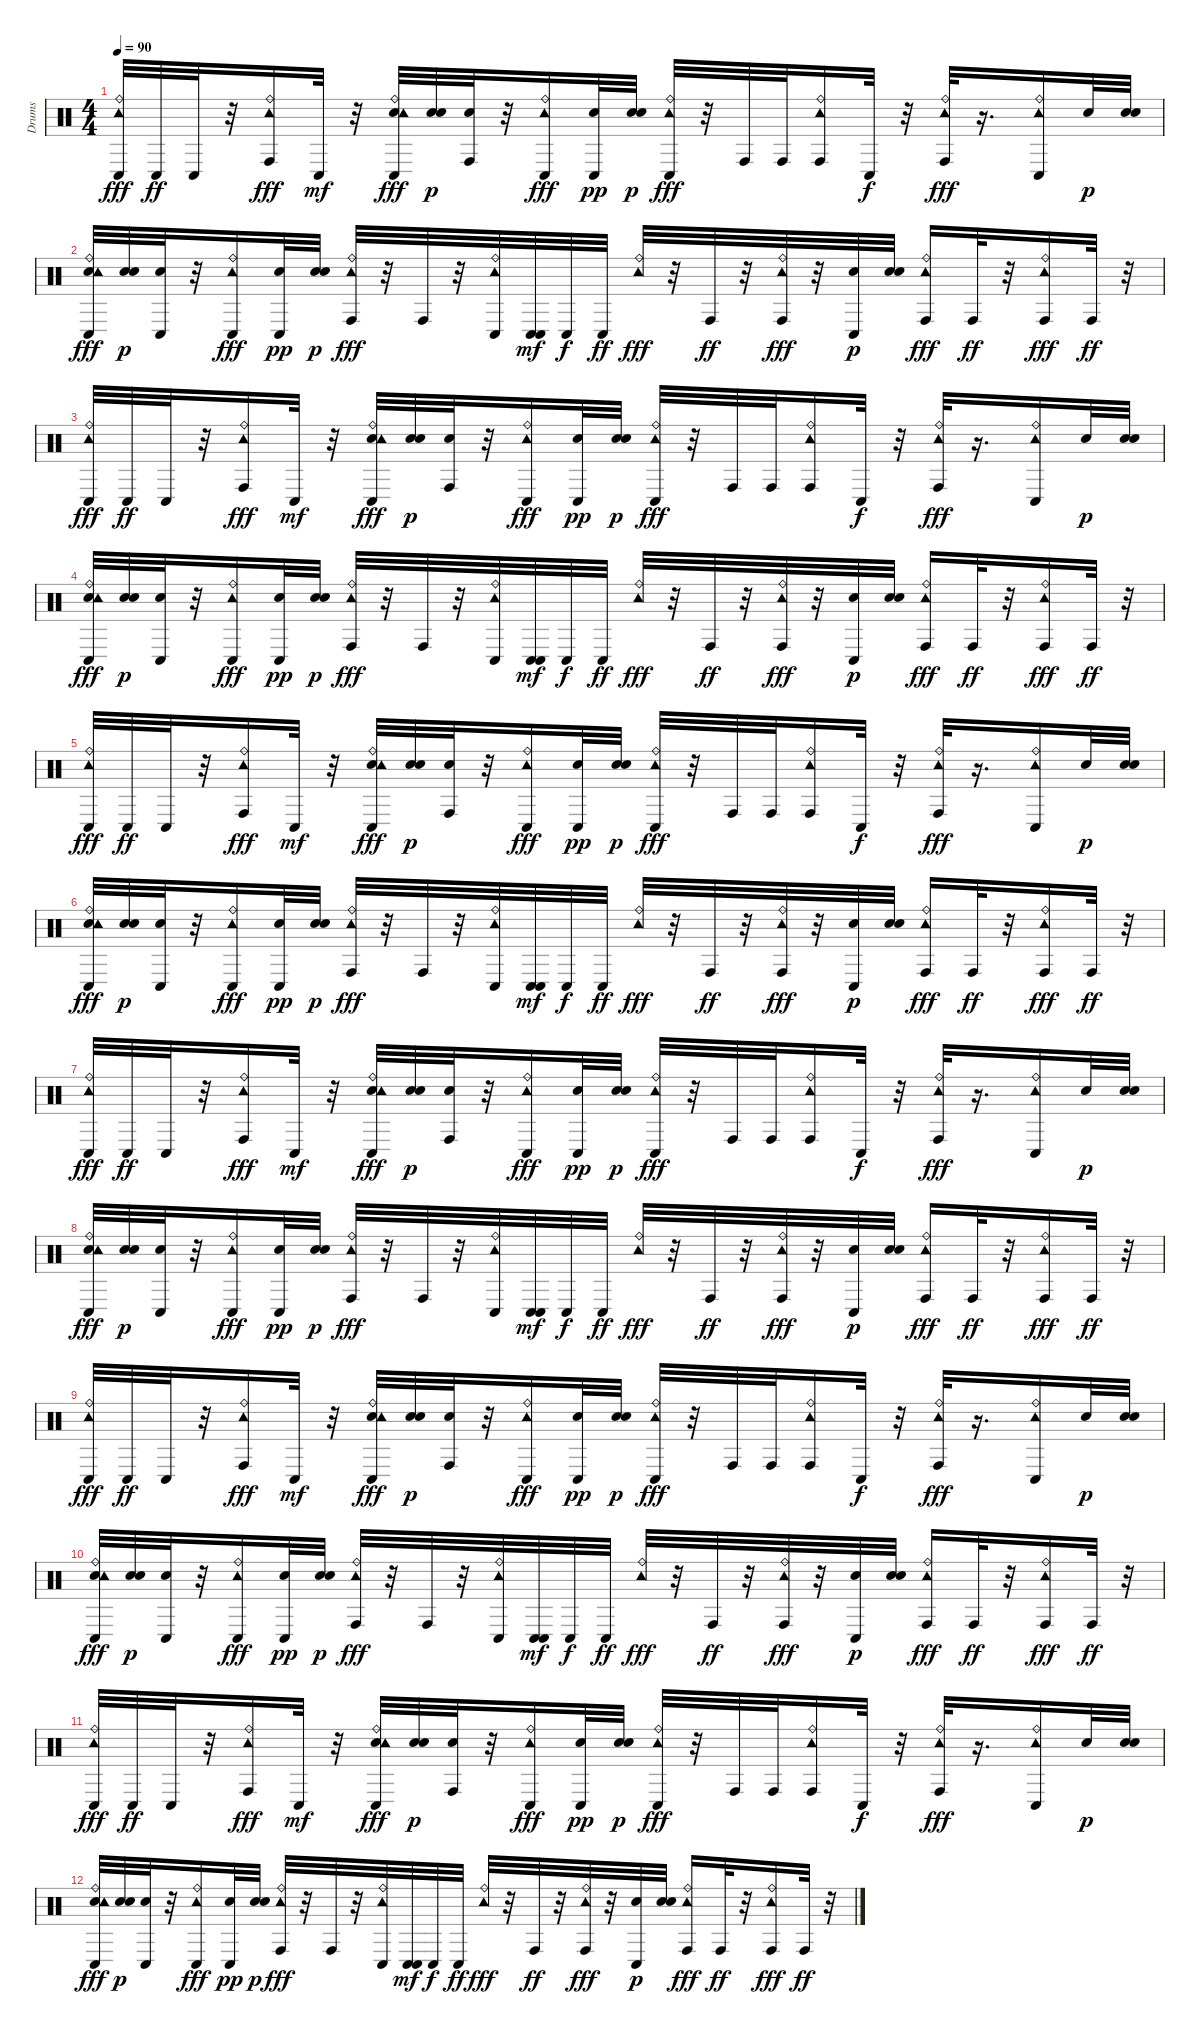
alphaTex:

\track ("Drums" "Drums") {instrument percussion}
\staff {score}
\articulation defaults
\ts (4 4)
\tempo 90
\clef neutral
\ks c
("Conga low (hit)" "Ride (bell)" "Tambourine (hit)").32{dy fff} "Conga low (hit)".32{dy ff} "Conga low (hit)".32 r.32 ("Conga high (hit)" "Ride (bell)" "Tambourine (hit)").16{dy fff} "Conga low (hit)".32{dy mf} r.32 ("Conga low (hit)" "Ride (bell)" "Electric Snare (hit)" "Tambourine (hit)").32{dy fff} ("Electric Snare (hit)" "Electric Snare (hit)").32{dy p} ("Conga high (hit)" "Electric Snare (hit)").32 r.32 ("Conga low (hit)" "Ride (bell)" "Tambourine (hit)").16{dy fff} ("Conga low (hit)" "Electric Snare (hit)").32{dy pp} ("Electric Snare (hit)" "Electric Snare (hit)").32{dy p} ("Ride (bell)" "Tambourine (hit)" "Conga low (hit)").32{dy fff} r.32 "Conga high (hit)".32 "Conga high (hit)".32 ("Ride (bell)" "Tambourine (hit)" "Conga high (hit)").16 "Conga low (hit)".32{dy f} r.32 ("Conga high (hit)" "Ride (bell)" "Tambourine (hit)").32{dy fff} r.16{d} ("Conga low (hit)" "Ride (bell)" "Tambourine (hit)").16 "Electric Snare (hit)".32{dy p} ("Electric Snare (hit)" "Electric Snare (hit)").32 |
("Conga low (hit)" "Ride (bell)" "Electric Snare (hit)" "Tambourine (hit)").32{dy fff} ("Electric Snare (hit)" "Electric Snare (hit)").32{dy p} ("Conga low (hit)" "Electric Snare (hit)").32 r.32 ("Conga low (hit)" "Ride (bell)" "Tambourine (hit)").16{dy fff} ("Conga low (hit)" "Electric Snare (hit)").32{dy pp} ("Electric Snare (hit)" "Electric Snare (hit)").32{dy p} ("Conga high (hit)" "Ride (bell)" "Tambourine (hit)").32{dy fff} r.32 "Conga high (hit)".32 r.32 ("Conga low (hit)" "Ride (bell)" "Tambourine (hit)").32 ("Conga low (hit)" "Conga low (hit)").32{dy mf} "Conga low (hit)".32{dy f} "Conga low (hit)".32{dy ff} ("Ride (bell)" "Tambourine (hit)").32{dy fff} r.32 "Conga high (hit)".32{dy ff} r.32 ("Ride (bell)" "Conga high (hit)" "Tambourine (hit)").32{dy fff} r.32 ("Conga low (hit)" "Electric Snare (hit)").32{dy p} ("Electric Snare (hit)" "Electric Snare (hit)").32 ("Conga high (hit)" "Ride (bell)" "Tambourine (hit)").16{dy fff} "Conga high (hit)".32{dy ff} r.32 ("Ride (bell)" "Conga high (hit)" "Tambourine (hit)").16{dy fff} "Conga high (hit)".32{dy ff} r.32 |
("Conga low (hit)" "Ride (bell)" "Tambourine (hit)").32{dy fff} "Conga low (hit)".32{dy ff} "Conga low (hit)".32 r.32 ("Conga high (hit)" "Ride (bell)" "Tambourine (hit)").16{dy fff} "Conga low (hit)".32{dy mf} r.32 ("Conga low (hit)" "Ride (bell)" "Electric Snare (hit)" "Tambourine (hit)").32{dy fff} ("Electric Snare (hit)" "Electric Snare (hit)").32{dy p} ("Conga high (hit)" "Electric Snare (hit)").32 r.32 ("Conga low (hit)" "Ride (bell)" "Tambourine (hit)").16{dy fff} ("Conga low (hit)" "Electric Snare (hit)").32{dy pp} ("Electric Snare (hit)" "Electric Snare (hit)").32{dy p} ("Ride (bell)" "Tambourine (hit)" "Conga low (hit)").32{dy fff} r.32 "Conga high (hit)".32 "Conga high (hit)".32 ("Ride (bell)" "Tambourine (hit)" "Conga high (hit)").16 "Conga low (hit)".32{dy f} r.32 ("Conga high (hit)" "Ride (bell)" "Tambourine (hit)").32{dy fff} r.16{d} ("Conga low (hit)" "Ride (bell)" "Tambourine (hit)").16 "Electric Snare (hit)".32{dy p} ("Electric Snare (hit)" "Electric Snare (hit)").32 |
("Conga low (hit)" "Ride (bell)" "Electric Snare (hit)" "Tambourine (hit)").32{dy fff} ("Electric Snare (hit)" "Electric Snare (hit)").32{dy p} ("Conga low (hit)" "Electric Snare (hit)").32 r.32 ("Conga low (hit)" "Ride (bell)" "Tambourine (hit)").16{dy fff} ("Conga low (hit)" "Electric Snare (hit)").32{dy pp} ("Electric Snare (hit)" "Electric Snare (hit)").32{dy p} ("Conga high (hit)" "Ride (bell)" "Tambourine (hit)").32{dy fff} r.32 "Conga high (hit)".32 r.32 ("Conga low (hit)" "Ride (bell)" "Tambourine (hit)").32 ("Conga low (hit)" "Conga low (hit)").32{dy mf} "Conga low (hit)".32{dy f} "Conga low (hit)".32{dy ff} ("Ride (bell)" "Tambourine (hit)").32{dy fff} r.32 "Conga high (hit)".32{dy ff} r.32 ("Ride (bell)" "Conga high (hit)" "Tambourine (hit)").32{dy fff} r.32 ("Conga low (hit)" "Electric Snare (hit)").32{dy p} ("Electric Snare (hit)" "Electric Snare (hit)").32 ("Conga high (hit)" "Ride (bell)" "Tambourine (hit)").16{dy fff} "Conga high (hit)".32{dy ff} r.32 ("Ride (bell)" "Conga high (hit)" "Tambourine (hit)").16{dy fff} "Conga high (hit)".32{dy ff} r.32 |
("Conga low (hit)" "Ride (bell)" "Tambourine (hit)").32{dy fff} "Conga low (hit)".32{dy ff} "Conga low (hit)".32 r.32 ("Conga high (hit)" "Ride (bell)" "Tambourine (hit)").16{dy fff} "Conga low (hit)".32{dy mf} r.32 ("Conga low (hit)" "Ride (bell)" "Electric Snare (hit)" "Tambourine (hit)").32{dy fff} ("Electric Snare (hit)" "Electric Snare (hit)").32{dy p} ("Conga high (hit)" "Electric Snare (hit)").32 r.32 ("Conga low (hit)" "Ride (bell)" "Tambourine (hit)").16{dy fff} ("Conga low (hit)" "Electric Snare (hit)").32{dy pp} ("Electric Snare (hit)" "Electric Snare (hit)").32{dy p} ("Ride (bell)" "Tambourine (hit)" "Conga low (hit)").32{dy fff} r.32 "Conga high (hit)".32 "Conga high (hit)".32 ("Ride (bell)" "Tambourine (hit)" "Conga high (hit)").16 "Conga low (hit)".32{dy f} r.32 ("Conga high (hit)" "Ride (bell)" "Tambourine (hit)").32{dy fff} r.16{d} ("Conga low (hit)" "Ride (bell)" "Tambourine (hit)").16 "Electric Snare (hit)".32{dy p} ("Electric Snare (hit)" "Electric Snare (hit)").32 |
("Conga low (hit)" "Ride (bell)" "Electric Snare (hit)" "Tambourine (hit)").32{dy fff} ("Electric Snare (hit)" "Electric Snare (hit)").32{dy p} ("Conga low (hit)" "Electric Snare (hit)").32 r.32 ("Conga low (hit)" "Ride (bell)" "Tambourine (hit)").16{dy fff} ("Conga low (hit)" "Electric Snare (hit)").32{dy pp} ("Electric Snare (hit)" "Electric Snare (hit)").32{dy p} ("Conga high (hit)" "Ride (bell)" "Tambourine (hit)").32{dy fff} r.32 "Conga high (hit)".32 r.32 ("Conga low (hit)" "Ride (bell)" "Tambourine (hit)").32 ("Conga low (hit)" "Conga low (hit)").32{dy mf} "Conga low (hit)".32{dy f} "Conga low (hit)".32{dy ff} ("Ride (bell)" "Tambourine (hit)").32{dy fff} r.32 "Conga high (hit)".32{dy ff} r.32 ("Ride (bell)" "Conga high (hit)" "Tambourine (hit)").32{dy fff} r.32 ("Conga low (hit)" "Electric Snare (hit)").32{dy p} ("Electric Snare (hit)" "Electric Snare (hit)").32 ("Conga high (hit)" "Ride (bell)" "Tambourine (hit)").16{dy fff} "Conga high (hit)".32{dy ff} r.32 ("Ride (bell)" "Conga high (hit)" "Tambourine (hit)").16{dy fff} "Conga high (hit)".32{dy ff} r.32 |
("Conga low (hit)" "Ride (bell)" "Tambourine (hit)").32{dy fff} "Conga low (hit)".32{dy ff} "Conga low (hit)".32 r.32 ("Conga high (hit)" "Ride (bell)" "Tambourine (hit)").16{dy fff} "Conga low (hit)".32{dy mf} r.32 ("Conga low (hit)" "Ride (bell)" "Electric Snare (hit)" "Tambourine (hit)").32{dy fff} ("Electric Snare (hit)" "Electric Snare (hit)").32{dy p} ("Conga high (hit)" "Electric Snare (hit)").32 r.32 ("Conga low (hit)" "Ride (bell)" "Tambourine (hit)").16{dy fff} ("Conga low (hit)" "Electric Snare (hit)").32{dy pp} ("Electric Snare (hit)" "Electric Snare (hit)").32{dy p} ("Ride (bell)" "Tambourine (hit)" "Conga low (hit)").32{dy fff} r.32 "Conga high (hit)".32 "Conga high (hit)".32 ("Ride (bell)" "Tambourine (hit)" "Conga high (hit)").16 "Conga low (hit)".32{dy f} r.32 ("Conga high (hit)" "Ride (bell)" "Tambourine (hit)").32{dy fff} r.16{d} ("Conga low (hit)" "Ride (bell)" "Tambourine (hit)").16 "Electric Snare (hit)".32{dy p} ("Electric Snare (hit)" "Electric Snare (hit)").32 |
("Conga low (hit)" "Ride (bell)" "Electric Snare (hit)" "Tambourine (hit)").32{dy fff} ("Electric Snare (hit)" "Electric Snare (hit)").32{dy p} ("Conga low (hit)" "Electric Snare (hit)").32 r.32 ("Conga low (hit)" "Ride (bell)" "Tambourine (hit)").16{dy fff} ("Conga low (hit)" "Electric Snare (hit)").32{dy pp} ("Electric Snare (hit)" "Electric Snare (hit)").32{dy p} ("Conga high (hit)" "Ride (bell)" "Tambourine (hit)").32{dy fff} r.32 "Conga high (hit)".32 r.32 ("Conga low (hit)" "Ride (bell)" "Tambourine (hit)").32 ("Conga low (hit)" "Conga low (hit)").32{dy mf} "Conga low (hit)".32{dy f} "Conga low (hit)".32{dy ff} ("Ride (bell)" "Tambourine (hit)").32{dy fff} r.32 "Conga high (hit)".32{dy ff} r.32 ("Ride (bell)" "Conga high (hit)" "Tambourine (hit)").32{dy fff} r.32 ("Conga low (hit)" "Electric Snare (hit)").32{dy p} ("Electric Snare (hit)" "Electric Snare (hit)").32 ("Conga high (hit)" "Ride (bell)" "Tambourine (hit)").16{dy fff} "Conga high (hit)".32{dy ff} r.32 ("Ride (bell)" "Conga high (hit)" "Tambourine (hit)").16{dy fff} "Conga high (hit)".32{dy ff} r.32 |
("Conga low (hit)" "Ride (bell)" "Tambourine (hit)").32{dy fff volume 0} "Conga low (hit)".32{dy ff} "Conga low (hit)".32 r.32 ("Conga high (hit)" "Ride (bell)" "Tambourine (hit)").16{dy fff} "Conga low (hit)".32{dy mf} r.32 ("Conga low (hit)" "Ride (bell)" "Electric Snare (hit)" "Tambourine (hit)").32{dy fff} ("Electric Snare (hit)" "Electric Snare (hit)").32{dy p} ("Conga high (hit)" "Electric Snare (hit)").32 r.32 ("Conga low (hit)" "Ride (bell)" "Tambourine (hit)").16{dy fff} ("Conga low (hit)" "Electric Snare (hit)").32{dy pp} ("Electric Snare (hit)" "Electric Snare (hit)").32{dy p} ("Ride (bell)" "Tambourine (hit)" "Conga low (hit)").32{dy fff} r.32 "Conga high (hit)".32 "Conga high (hit)".32 ("Ride (bell)" "Tambourine (hit)" "Conga high (hit)").16 "Conga low (hit)".32{dy f} r.32 ("Conga high (hit)" "Ride (bell)" "Tambourine (hit)").32{dy fff} r.16{d} ("Conga low (hit)" "Ride (bell)" "Tambourine (hit)").16 "Electric Snare (hit)".32{dy p} ("Electric Snare (hit)" "Electric Snare (hit)").32 |
("Conga low (hit)" "Ride (bell)" "Electric Snare (hit)" "Tambourine (hit)").32{dy fff} ("Electric Snare (hit)" "Electric Snare (hit)").32{dy p} ("Conga low (hit)" "Electric Snare (hit)").32 r.32 ("Conga low (hit)" "Ride (bell)" "Tambourine (hit)").16{dy fff} ("Conga low (hit)" "Electric Snare (hit)").32{dy pp} ("Electric Snare (hit)" "Electric Snare (hit)").32{dy p} ("Conga high (hit)" "Ride (bell)" "Tambourine (hit)").32{dy fff} r.32 "Conga high (hit)".32 r.32 ("Conga low (hit)" "Ride (bell)" "Tambourine (hit)").32 ("Conga low (hit)" "Conga low (hit)").32{dy mf} "Conga low (hit)".32{dy f} "Conga low (hit)".32{dy ff} ("Ride (bell)" "Tambourine (hit)").32{dy fff} r.32 "Conga high (hit)".32{dy ff} r.32 ("Ride (bell)" "Conga high (hit)" "Tambourine (hit)").32{dy fff} r.32 ("Conga low (hit)" "Electric Snare (hit)").32{dy p} ("Electric Snare (hit)" "Electric Snare (hit)").32 ("Conga high (hit)" "Ride (bell)" "Tambourine (hit)").16{dy fff} "Conga high (hit)".32{dy ff} r.32 ("Ride (bell)" "Conga high (hit)" "Tambourine (hit)").16{dy fff} "Conga high (hit)".32{dy ff} r.32 |
("Conga low (hit)" "Ride (bell)" "Tambourine (hit)").32{dy fff} "Conga low (hit)".32{dy ff} "Conga low (hit)".32 r.32 ("Conga high (hit)" "Ride (bell)" "Tambourine (hit)").16{dy fff} "Conga low (hit)".32{dy mf} r.32 ("Conga low (hit)" "Ride (bell)" "Electric Snare (hit)" "Tambourine (hit)").32{dy fff} ("Electric Snare (hit)" "Electric Snare (hit)").32{dy p} ("Conga high (hit)" "Electric Snare (hit)").32 r.32 ("Conga low (hit)" "Ride (bell)" "Tambourine (hit)").16{dy fff} ("Conga low (hit)" "Electric Snare (hit)").32{dy pp} ("Electric Snare (hit)" "Electric Snare (hit)").32{dy p} ("Ride (bell)" "Tambourine (hit)" "Conga low (hit)").32{dy fff} r.32 "Conga high (hit)".32 "Conga high (hit)".32 ("Ride (bell)" "Tambourine (hit)" "Conga high (hit)").16 "Conga low (hit)".32{dy f} r.32 ("Conga high (hit)" "Ride (bell)" "Tambourine (hit)").32{dy fff} r.16{d} ("Conga low (hit)" "Ride (bell)" "Tambourine (hit)").16 "Electric Snare (hit)".32{dy p} ("Electric Snare (hit)" "Electric Snare (hit)").32 |
("Conga low (hit)" "Ride (bell)" "Electric Snare (hit)" "Tambourine (hit)").32{dy fff} ("Electric Snare (hit)" "Electric Snare (hit)").32{dy p} ("Conga low (hit)" "Electric Snare (hit)").32 r.32 ("Conga low (hit)" "Ride (bell)" "Tambourine (hit)").16{dy fff} ("Conga low (hit)" "Electric Snare (hit)").32{dy pp} ("Electric Snare (hit)" "Electric Snare (hit)").32{dy p} ("Conga high (hit)" "Ride (bell)" "Tambourine (hit)").32{dy fff} r.32 "Conga high (hit)".32 r.32 ("Conga low (hit)" "Ride (bell)" "Tambourine (hit)").32 ("Conga low (hit)" "Conga low (hit)").32{dy mf} "Conga low (hit)".32{dy f} "Conga low (hit)".32{dy ff} ("Ride (bell)" "Tambourine (hit)").32{dy fff} r.32 "Conga high (hit)".32{dy ff} r.32 ("Ride (bell)" "Conga high (hit)" "Tambourine (hit)").32{dy fff} r.32 ("Conga low (hit)" "Electric Snare (hit)").32{dy p} ("Electric Snare (hit)" "Electric Snare (hit)").32 ("Conga high (hit)" "Ride (bell)" "Tambourine (hit)").16{dy fff} "Conga high (hit)".32{dy ff} r.32 ("Ride (bell)" "Conga high (hit)" "Tambourine (hit)").16{dy fff} "Conga high (hit)".32{dy ff} r.32
